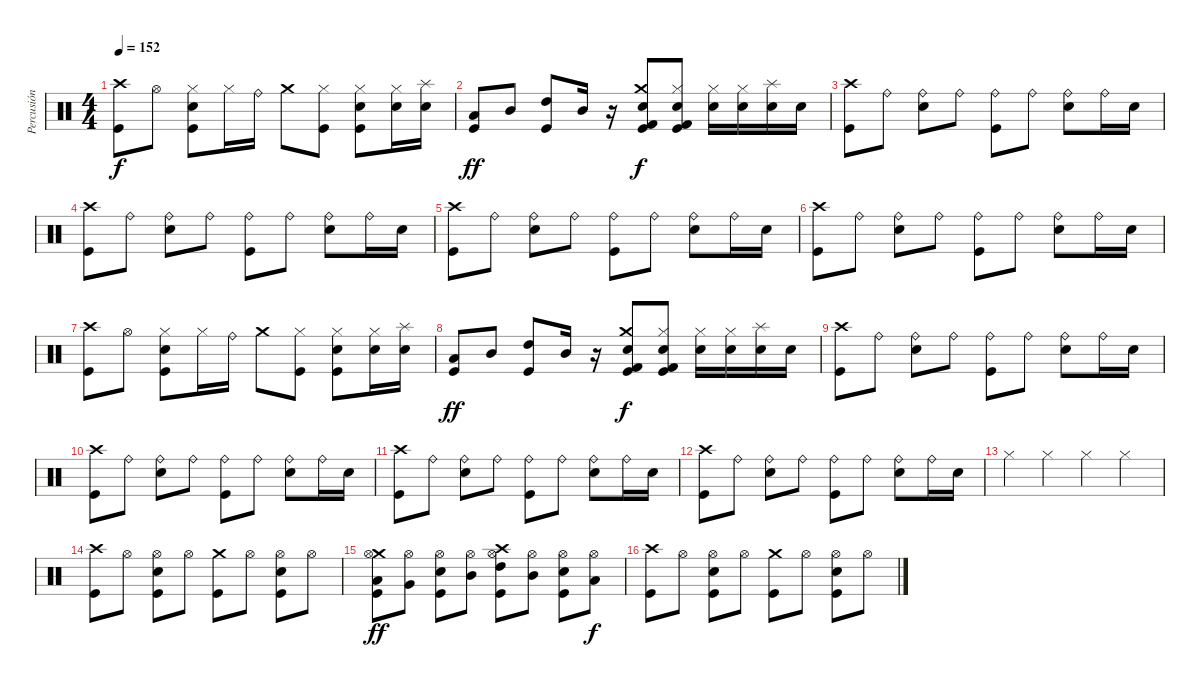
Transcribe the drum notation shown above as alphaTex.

\track ("Percusión" "Percusión") {instrument percussion}
\staff {score}
\articulation defaults
\ts (4 4)
\tempo 152
\clef neutral
\ks c
("Crash high (hit)" "Kick (hit)").8{dy f} "Hi-Hat (open)".8 ("Hi-Hat (closed)" "Electric Snare (hit)" "Kick (hit)").8 "Hi-Hat (closed)".16 "Ride (bell)".16 "Crash medium (hit)".8 ("Hi-Hat (closed)" "Kick (hit)").8 ("Hi-Hat (closed)" "Electric Snare (hit)" "Kick (hit)").8 ("Hi-Hat (closed)" "Electric Snare (hit)").16 ("Splash (hit)" "Electric Snare (hit)").16 |
("Low Tom (hit)" "Kick (hit)").8{dy ff} "Mid Tom (hit)".8 ("High Tom (hit)" "Kick (hit)").8 "Mid Tom (hit)".16 r.16 ("Crash medium (hit)" "Electric Snare (hit)" "Kick (hit) 2" "Kick (hit)").8{dy f} ("Hi-Hat (closed)" "Electric Snare (hit)" "Kick (hit) 2" "Kick (hit)").8 ("Hi-Hat (closed)" "Electric Snare (hit)").16 ("Hi-Hat (closed)" "Electric Snare (hit)").16 ("Splash (hit)" "Electric Snare (hit)").16 "Electric Snare (hit)".16 |
("Crash high (hit)" "Kick (hit)").8 "Ride (bell)".8 ("Ride (bell)" "Electric Snare (hit)").8 "Ride (bell)".8 ("Ride (bell)" "Kick (hit)").8 "Ride (bell)".8 ("Ride (bell)" "Electric Snare (hit)").8 "Ride (bell)".16 "Electric Snare (hit)".16 |
("Crash high (hit)" "Kick (hit)").8 "Ride (bell)".8 ("Ride (bell)" "Electric Snare (hit)").8 "Ride (bell)".8 ("Ride (bell)" "Kick (hit)").8 "Ride (bell)".8 ("Ride (bell)" "Electric Snare (hit)").8 "Ride (bell)".16 "Electric Snare (hit)".16 |
("Crash high (hit)" "Kick (hit)").8 "Ride (bell)".8 ("Ride (bell)" "Electric Snare (hit)").8 "Ride (bell)".8 ("Ride (bell)" "Kick (hit)").8 "Ride (bell)".8 ("Ride (bell)" "Electric Snare (hit)").8 "Ride (bell)".16 "Electric Snare (hit)".16 |
("Crash high (hit)" "Kick (hit)").8 "Ride (bell)".8 ("Ride (bell)" "Electric Snare (hit)").8 "Ride (bell)".8 ("Ride (bell)" "Kick (hit)").8 "Ride (bell)".8 ("Ride (bell)" "Electric Snare (hit)").8 "Ride (bell)".16 "Electric Snare (hit)".16 |
("Crash high (hit)" "Kick (hit)").8 "Hi-Hat (open)".8 ("Hi-Hat (closed)" "Electric Snare (hit)" "Kick (hit)").8 "Hi-Hat (closed)".16 "Ride (bell)".16 "Crash medium (hit)".8 ("Hi-Hat (closed)" "Kick (hit)").8 ("Hi-Hat (closed)" "Electric Snare (hit)" "Kick (hit)").8 ("Hi-Hat (closed)" "Electric Snare (hit)").16 ("Splash (hit)" "Electric Snare (hit)").16 |
("Low Tom (hit)" "Kick (hit)").8{dy ff} "Mid Tom (hit)".8 ("High Tom (hit)" "Kick (hit)").8 "Mid Tom (hit)".16 r.16 ("Crash medium (hit)" "Electric Snare (hit)" "Kick (hit) 2" "Kick (hit)").8{dy f} ("Hi-Hat (closed)" "Electric Snare (hit)" "Kick (hit) 2" "Kick (hit)").8 ("Hi-Hat (closed)" "Electric Snare (hit)").16 ("Hi-Hat (closed)" "Electric Snare (hit)").16 ("Splash (hit)" "Electric Snare (hit)").16 "Electric Snare (hit)".16 |
("Crash high (hit)" "Kick (hit)").8 "Ride (bell)".8 ("Ride (bell)" "Electric Snare (hit)").8 "Ride (bell)".8 ("Ride (bell)" "Kick (hit)").8 "Ride (bell)".8 ("Ride (bell)" "Electric Snare (hit)").8 "Ride (bell)".16 "Electric Snare (hit)".16 |
("Crash high (hit)" "Kick (hit)").8 "Ride (bell)".8 ("Ride (bell)" "Electric Snare (hit)").8 "Ride (bell)".8 ("Ride (bell)" "Kick (hit)").8 "Ride (bell)".8 ("Ride (bell)" "Electric Snare (hit)").8 "Ride (bell)".16 "Electric Snare (hit)".16 |
("Crash high (hit)" "Kick (hit)").8 "Ride (bell)".8 ("Ride (bell)" "Electric Snare (hit)").8 "Ride (bell)".8 ("Ride (bell)" "Kick (hit)").8 "Ride (bell)".8 ("Ride (bell)" "Electric Snare (hit)").8 "Ride (bell)".16 "Electric Snare (hit)".16 |
("Crash high (hit)" "Kick (hit)").8 "Ride (bell)".8 ("Ride (bell)" "Electric Snare (hit)").8 "Ride (bell)".8 ("Ride (bell)" "Kick (hit)").8 "Ride (bell)".8 ("Ride (bell)" "Electric Snare (hit)").8 "Ride (bell)".16 "Electric Snare (hit)".16 |
"Hi-Hat (closed)".4 "Hi-Hat (closed)".4 "Hi-Hat (closed)".4 "Hi-Hat (closed)".4 |
("Crash high (hit)" "Kick (hit)").8 "Hi-Hat (open)".8 ("Hi-Hat (open)" "Electric Snare (hit)" "Kick (hit)").8 "Hi-Hat (open)".8 ("Crash medium (hit)" "Kick (hit)").8 "Hi-Hat (open)".8 ("Hi-Hat (open)" "Electric Snare (hit)" "Kick (hit)").8 "Hi-Hat (open)".8 |
("Low Floor Tom (hit)" "Crash medium (hit)" "Kick (hit)" "Hi-Hat (open)").8{dy ff} ("Very Low Tom (hit)" "Hi-Hat (open)").8 ("Electric Snare (hit)" "Kick (hit)" "Hi-Hat (open)").8 ("Mid Tom (hit)" "Hi-Hat (open)").8 ("High Tom (hit)" "Crash high (hit)" "Kick (hit)" "Hi-Hat (open)").8 ("Mid Tom (hit)" "Hi-Hat (open)").8 ("Electric Snare (hit)" "Kick (hit)" "Hi-Hat (open)").8 ("Low Tom (hit)" "Hi-Hat (open)").8{dy f} |
("Crash high (hit)" "Kick (hit)").8 "Hi-Hat (open)".8 ("Hi-Hat (open)" "Electric Snare (hit)" "Kick (hit)").8 "Hi-Hat (open)".8 ("Crash medium (hit)" "Kick (hit)").8 "Hi-Hat (open)".8 ("Hi-Hat (open)" "Electric Snare (hit)" "Kick (hit)").8 "Hi-Hat (open)".8
